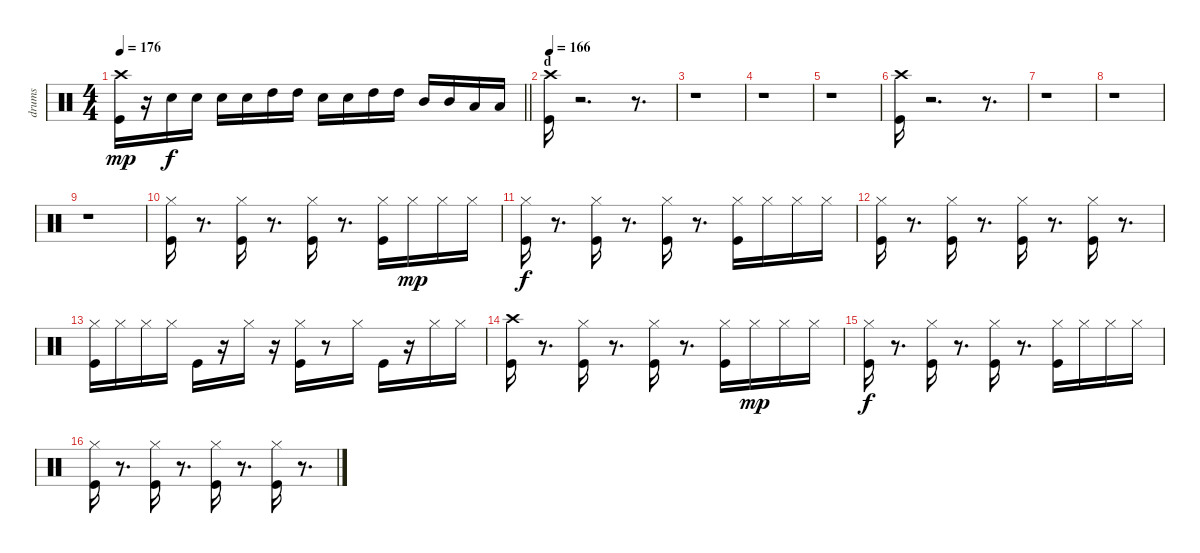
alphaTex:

\track ("drums" "drums") {instrument percussion}
\staff {score}
\articulation defaults
\ts (4 4)
\tempo 176
\clef neutral
\barLineRight lightlight
\ks c
("Kick (hit)" "Crash high (hit)").16{dy mp} r.16 "Snare (hit) 2".16{dy f} "Snare (hit) 2".16 "Snare (hit) 2".16 "Snare (hit) 2".16 "High Tom (hit)".16 "High Tom (hit)".16 "Snare (hit) 2".16 "Snare (hit) 2".16 "High Tom (hit)".16 "High Tom (hit)".16 "Mid Tom (hit)".16 "Mid Tom (hit)".16 "Low Tom (hit)".16 "Low Tom (hit)".16 |
\section ("" "d")
\tempo 166
("Kick (hit)" "Crash high (hit)").16 r.2{d} r.8{d} |
r.1 |
r.1 |
r.1 |
("Kick (hit)" "Crash high (hit)").16 r.2{d} r.8{d} |
r.1 |
r.1 |
r.1 |
("Kick (hit)" "Hi-Hat (closed)").16 r.8{d} ("Kick (hit)" "Hi-Hat (closed)").16 r.8{d} ("Kick (hit)" "Hi-Hat (closed)").16 r.8{d} ("Kick (hit)" "Hi-Hat (closed)").16 "Hi-Hat (closed)".16{dy mp} "Hi-Hat (closed)".16 "Hi-Hat (closed)".16 |
("Kick (hit)" "Hi-Hat (closed)").16{dy f} r.8{d} ("Kick (hit)" "Hi-Hat (closed)").16 r.8{d} ("Kick (hit)" "Hi-Hat (closed)").16 r.8{d} ("Kick (hit)" "Hi-Hat (closed)").16 "Hi-Hat (closed)".16 "Hi-Hat (closed)".16 "Hi-Hat (closed)".16 |
("Kick (hit)" "Hi-Hat (closed)").16 r.8{d} ("Kick (hit)" "Hi-Hat (closed)").16 r.8{d} ("Kick (hit)" "Hi-Hat (closed)").16 r.8{d} ("Kick (hit)" "Hi-Hat (closed)").16 r.8{d} |
("Kick (hit)" "Hi-Hat (closed)").16 "Hi-Hat (closed)".16 "Hi-Hat (closed)".16 "Hi-Hat (closed)".16 "Kick (hit)".16 r.16 "Hi-Hat (closed)".16 r.16 ("Kick (hit)" "Hi-Hat (closed)").16 r.8 "Hi-Hat (closed)".16 "Kick (hit)".16 r.16 "Hi-Hat (closed)".16 "Hi-Hat (closed)".16 |
("Kick (hit)" "Crash high (hit)").16 r.8{d} ("Kick (hit)" "Hi-Hat (closed)").16 r.8{d} ("Kick (hit)" "Hi-Hat (closed)").16 r.8{d} ("Kick (hit)" "Hi-Hat (closed)").16 "Hi-Hat (closed)".16{dy mp} "Hi-Hat (closed)".16 "Hi-Hat (closed)".16 |
("Kick (hit)" "Hi-Hat (closed)").16{dy f} r.8{d} ("Kick (hit)" "Hi-Hat (closed)").16 r.8{d} ("Kick (hit)" "Hi-Hat (closed)").16 r.8{d} ("Kick (hit)" "Hi-Hat (closed)").16 "Hi-Hat (closed)".16 "Hi-Hat (closed)".16 "Hi-Hat (closed)".16 |
("Kick (hit)" "Hi-Hat (closed)").16 r.8{d} ("Kick (hit)" "Hi-Hat (closed)").16 r.8{d} ("Kick (hit)" "Hi-Hat (closed)").16 r.8{d} ("Kick (hit)" "Hi-Hat (closed)").16 r.8{d}
